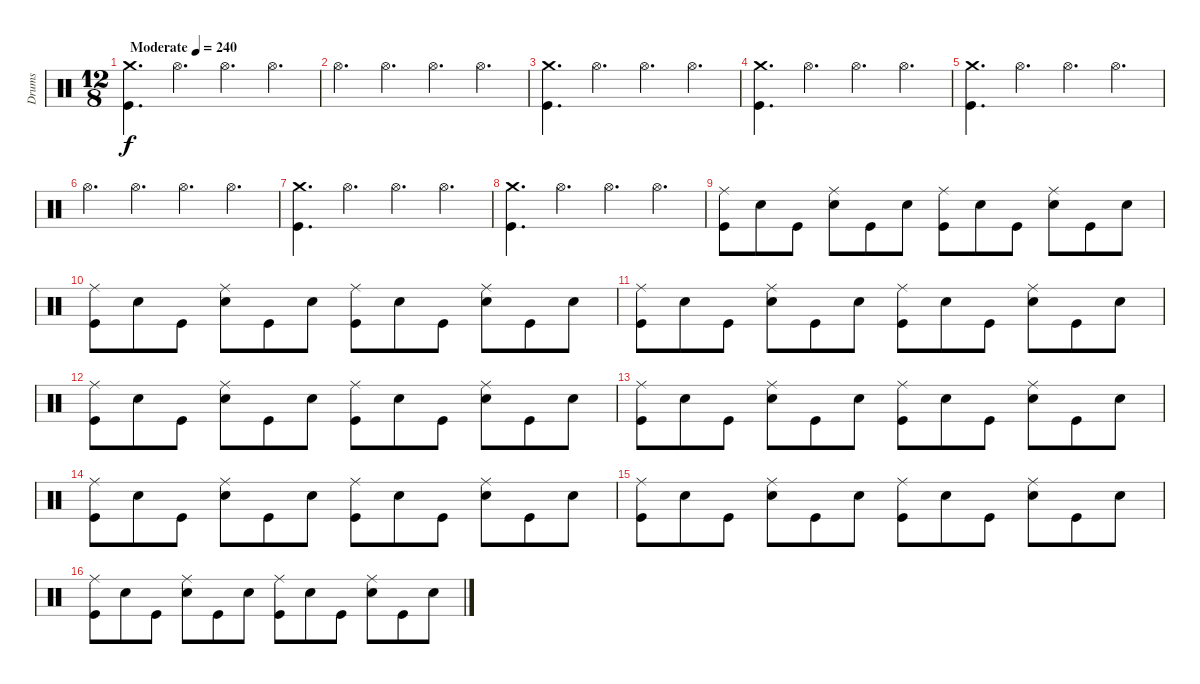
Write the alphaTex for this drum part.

\track ("Drums" "Drums") {instrument percussion}
\staff {score}
\articulation defaults
\ts (12 8)
\tempo (240 "Moderate")
\clef neutral
\ks c
("Crash medium (hit)" "Kick (hit)").4{d dy f} "Hi-Hat (open)".4{d} "Hi-Hat (open)".4{d} "Hi-Hat (open)".4{d} |
"Hi-Hat (open)".4{d} "Hi-Hat (open)".4{d} "Hi-Hat (open)".4{d} "Hi-Hat (open)".4{d} |
("Crash medium (hit)" "Kick (hit)").4{d} "Hi-Hat (open)".4{d} "Hi-Hat (open)".4{d} "Hi-Hat (open)".4{d} |
("Crash medium (hit)" "Kick (hit)").4{d} "Hi-Hat (open)".4{d} "Hi-Hat (open)".4{d} "Hi-Hat (open)".4{d} |
("Crash medium (hit)" "Kick (hit)").4{d} "Hi-Hat (open)".4{d} "Hi-Hat (open)".4{d} "Hi-Hat (open)".4{d} |
"Hi-Hat (open)".4{d} "Hi-Hat (open)".4{d} "Hi-Hat (open)".4{d} "Hi-Hat (open)".4{d} |
("Crash medium (hit)" "Kick (hit)").4{d} "Hi-Hat (open)".4{d} "Hi-Hat (open)".4{d} "Hi-Hat (open)".4{d} |
("Crash medium (hit)" "Kick (hit)").4{d} "Hi-Hat (open)".4{d} "Hi-Hat (open)".4{d} "Hi-Hat (open)".4{d} |
("Ride (middle)" "Kick (hit)").8 "Snare (hit) 2".8 "Kick (hit)".8 ("Ride (middle)" "Snare (hit) 2").8 "Kick (hit)".8 "Snare (hit) 2".8 ("Ride (middle)" "Kick (hit)").8 "Snare (hit) 2".8 "Kick (hit)".8 ("Ride (middle)" "Snare (hit) 2").8 "Kick (hit)".8 "Snare (hit) 2".8 |
("Ride (middle)" "Kick (hit)").8 "Snare (hit) 2".8 "Kick (hit)".8 ("Ride (middle)" "Snare (hit) 2").8 "Kick (hit)".8 "Snare (hit) 2".8 ("Ride (middle)" "Kick (hit)").8 "Snare (hit) 2".8 "Kick (hit)".8 ("Ride (middle)" "Snare (hit) 2").8 "Kick (hit)".8 "Snare (hit) 2".8 |
("Ride (middle)" "Kick (hit)").8 "Snare (hit) 2".8 "Kick (hit)".8 ("Ride (middle)" "Snare (hit) 2").8 "Kick (hit)".8 "Snare (hit) 2".8 ("Ride (middle)" "Kick (hit)").8 "Snare (hit) 2".8 "Kick (hit)".8 ("Ride (middle)" "Snare (hit) 2").8 "Kick (hit)".8 "Snare (hit) 2".8 |
("Ride (middle)" "Kick (hit)").8 "Snare (hit) 2".8 "Kick (hit)".8 ("Ride (middle)" "Snare (hit) 2").8 "Kick (hit)".8 "Snare (hit) 2".8 ("Ride (middle)" "Kick (hit)").8 "Snare (hit) 2".8 "Kick (hit)".8 ("Ride (middle)" "Snare (hit) 2").8 "Kick (hit)".8 "Snare (hit) 2".8 |
("Ride (middle)" "Kick (hit)").8 "Snare (hit) 2".8 "Kick (hit)".8 ("Ride (middle)" "Snare (hit) 2").8 "Kick (hit)".8 "Snare (hit) 2".8 ("Ride (middle)" "Kick (hit)").8 "Snare (hit) 2".8 "Kick (hit)".8 ("Ride (middle)" "Snare (hit) 2").8 "Kick (hit)".8 "Snare (hit) 2".8 |
("Ride (middle)" "Kick (hit)").8 "Snare (hit) 2".8 "Kick (hit)".8 ("Ride (middle)" "Snare (hit) 2").8 "Kick (hit)".8 "Snare (hit) 2".8 ("Ride (middle)" "Kick (hit)").8 "Snare (hit) 2".8 "Kick (hit)".8 ("Ride (middle)" "Snare (hit) 2").8 "Kick (hit)".8 "Snare (hit) 2".8 |
("Ride (middle)" "Kick (hit)").8 "Snare (hit) 2".8 "Kick (hit)".8 ("Ride (middle)" "Snare (hit) 2").8 "Kick (hit)".8 "Snare (hit) 2".8 ("Ride (middle)" "Kick (hit)").8 "Snare (hit) 2".8 "Kick (hit)".8 ("Ride (middle)" "Snare (hit) 2").8 "Kick (hit)".8 "Snare (hit) 2".8 |
("Ride (middle)" "Kick (hit)").8 "Snare (hit) 2".8 "Kick (hit)".8 ("Ride (middle)" "Snare (hit) 2").8 "Kick (hit)".8 "Snare (hit) 2".8 ("Ride (middle)" "Kick (hit)").8 "Snare (hit) 2".8 "Kick (hit)".8 ("Ride (middle)" "Snare (hit) 2").8 "Kick (hit)".8 "Snare (hit) 2".8
